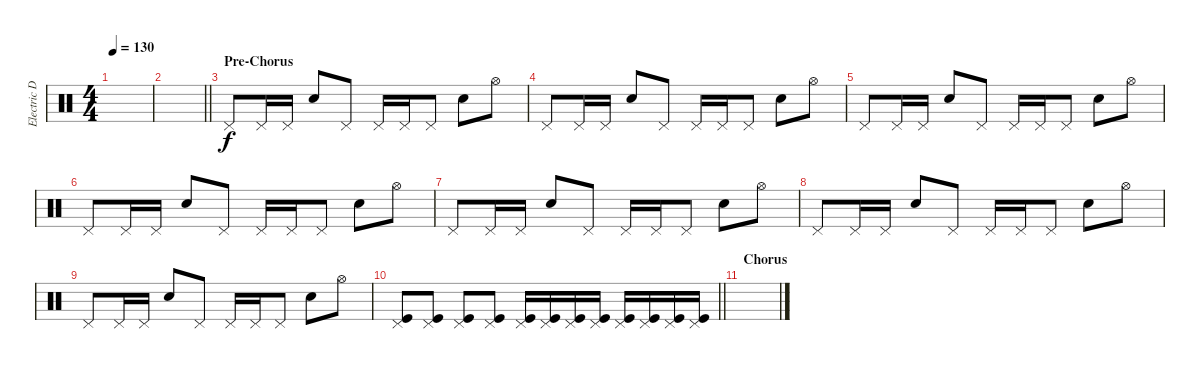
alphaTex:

\track ("Electric Drums" "Electric D") {instrument percussion}
\staff {score}
\articulation defaults
\ts (4 4)
\tempo 130
\clef neutral
\ks c
|
\barLineRight lightlight
|
\section ("" "Pre-Chorus")
"Pedal Hi-Hat (hit)".8 "Pedal Hi-Hat (hit)".16 "Pedal Hi-Hat (hit)".16 "Snare (hit) 2".8 "Pedal Hi-Hat (hit)".8 "Pedal Hi-Hat (hit)".16 "Pedal Hi-Hat (hit)".16 "Pedal Hi-Hat (hit)".8 "Snare (hit) 2".8 "Hi-Hat (open)".8 |
"Pedal Hi-Hat (hit)".8 "Pedal Hi-Hat (hit)".16 "Pedal Hi-Hat (hit)".16 "Snare (hit) 2".8 "Pedal Hi-Hat (hit)".8 "Pedal Hi-Hat (hit)".16 "Pedal Hi-Hat (hit)".16 "Pedal Hi-Hat (hit)".8 "Snare (hit) 2".8 "Hi-Hat (open)".8 |
"Pedal Hi-Hat (hit)".8 "Pedal Hi-Hat (hit)".16 "Pedal Hi-Hat (hit)".16 "Snare (hit) 2".8 "Pedal Hi-Hat (hit)".8 "Pedal Hi-Hat (hit)".16 "Pedal Hi-Hat (hit)".16 "Pedal Hi-Hat (hit)".8 "Snare (hit) 2".8 "Hi-Hat (open)".8 |
"Pedal Hi-Hat (hit)".8 "Pedal Hi-Hat (hit)".16 "Pedal Hi-Hat (hit)".16 "Snare (hit) 2".8 "Pedal Hi-Hat (hit)".8 "Pedal Hi-Hat (hit)".16 "Pedal Hi-Hat (hit)".16 "Pedal Hi-Hat (hit)".8 "Snare (hit) 2".8 "Hi-Hat (open)".8 |
"Pedal Hi-Hat (hit)".8 "Pedal Hi-Hat (hit)".16 "Pedal Hi-Hat (hit)".16 "Snare (hit) 2".8 "Pedal Hi-Hat (hit)".8 "Pedal Hi-Hat (hit)".16 "Pedal Hi-Hat (hit)".16 "Pedal Hi-Hat (hit)".8 "Snare (hit) 2".8 "Hi-Hat (open)".8 |
"Pedal Hi-Hat (hit)".8 "Pedal Hi-Hat (hit)".16 "Pedal Hi-Hat (hit)".16 "Snare (hit) 2".8 "Pedal Hi-Hat (hit)".8 "Pedal Hi-Hat (hit)".16 "Pedal Hi-Hat (hit)".16 "Pedal Hi-Hat (hit)".8 "Snare (hit) 2".8 "Hi-Hat (open)".8 |
"Pedal Hi-Hat (hit)".8 "Pedal Hi-Hat (hit)".16 "Pedal Hi-Hat (hit)".16 "Snare (hit) 2".8 "Pedal Hi-Hat (hit)".8 "Pedal Hi-Hat (hit)".16 "Pedal Hi-Hat (hit)".16 "Pedal Hi-Hat (hit)".8 "Snare (hit) 2".8 "Hi-Hat (open)".8 |
\barLineRight lightlight
("Pedal Hi-Hat (hit)" "Kick (hit)").8 ("Pedal Hi-Hat (hit)" "Kick (hit)").8 ("Pedal Hi-Hat (hit)" "Kick (hit)").8 ("Pedal Hi-Hat (hit)" "Kick (hit)").8 ("Pedal Hi-Hat (hit)" "Kick (hit)").16 ("Pedal Hi-Hat (hit)" "Kick (hit)").16 ("Pedal Hi-Hat (hit)" "Kick (hit)").16 ("Pedal Hi-Hat (hit)" "Kick (hit)").16 ("Pedal Hi-Hat (hit)" "Kick (hit)").16 ("Pedal Hi-Hat (hit)" "Kick (hit)").16 ("Pedal Hi-Hat (hit)" "Kick (hit)").16 ("Pedal Hi-Hat (hit)" "Kick (hit)").16 |
\section ("" "Chorus")
